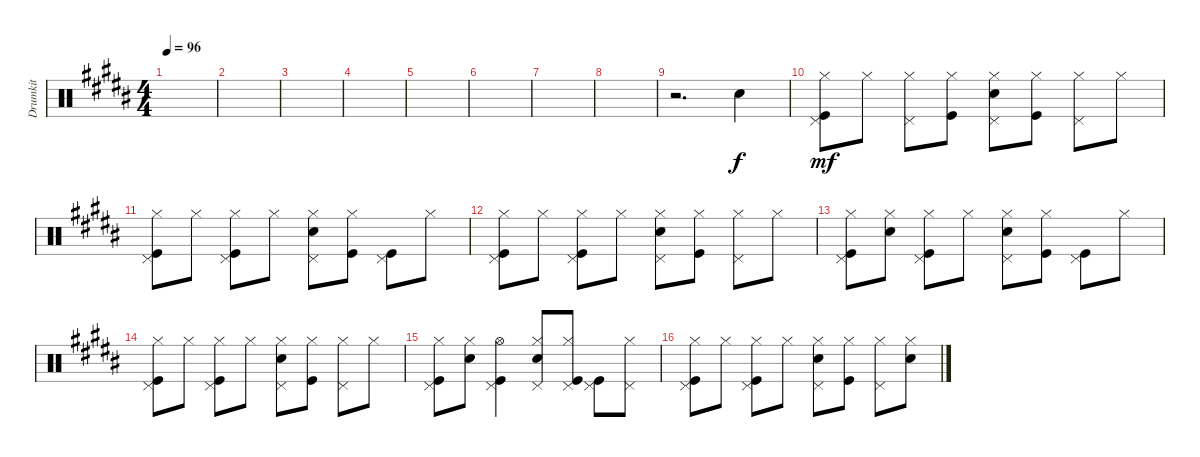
\track ("Drumkit" "Drumkit") {instrument percussion}
\staff {score}
\articulation defaults
\ts (4 4)
\tempo 96
\clef neutral
\ks b
|
|
|
|
|
|
|
|
r.2{d} "Snare (hit) 2".4 |
("Kick (hit)" "Hi-Hat (closed)" "Pedal Hi-Hat (hit)").8{dy mf} "Hi-Hat (closed)".8 ("Pedal Hi-Hat (hit)" "Hi-Hat (closed)").8 ("Kick (hit)" "Hi-Hat (closed)").8 ("Snare (hit) 2" "Pedal Hi-Hat (hit)" "Hi-Hat (closed)").8 ("Kick (hit)" "Hi-Hat (closed)").8 ("Pedal Hi-Hat (hit)" "Hi-Hat (closed)").8 "Hi-Hat (closed)".8 |
("Kick (hit)" "Pedal Hi-Hat (hit)" "Hi-Hat (closed)").8 "Hi-Hat (closed)".8 ("Kick (hit)" "Hi-Hat (closed)" "Pedal Hi-Hat (hit)").8 "Hi-Hat (closed)".8 ("Snare (hit) 2" "Hi-Hat (closed)" "Pedal Hi-Hat (hit)").8 ("Kick (hit)" "Hi-Hat (closed)").8 ("Kick (hit)" "Pedal Hi-Hat (hit)").8 "Hi-Hat (closed)".8 |
("Kick (hit)" "Hi-Hat (closed)" "Pedal Hi-Hat (hit)").8 "Hi-Hat (closed)".8 ("Pedal Hi-Hat (hit)" "Hi-Hat (closed)" "Kick (hit)").8 "Hi-Hat (closed)".8 ("Snare (hit) 2" "Pedal Hi-Hat (hit)" "Hi-Hat (closed)").8 ("Kick (hit)" "Hi-Hat (closed)").8 ("Pedal Hi-Hat (hit)" "Hi-Hat (closed)").8 "Hi-Hat (closed)".8 |
("Kick (hit)" "Pedal Hi-Hat (hit)" "Hi-Hat (closed)").8 ("Snare (hit) 2" "Hi-Hat (closed)").8 ("Kick (hit)" "Hi-Hat (closed)" "Pedal Hi-Hat (hit)").8 "Hi-Hat (closed)".8 ("Snare (hit) 2" "Hi-Hat (closed)" "Pedal Hi-Hat (hit)").8 ("Kick (hit)" "Hi-Hat (closed)").8 ("Kick (hit)" "Pedal Hi-Hat (hit)").8 "Hi-Hat (closed)".8 |
("Kick (hit)" "Hi-Hat (closed)" "Pedal Hi-Hat (hit)").8 "Hi-Hat (closed)".8 ("Pedal Hi-Hat (hit)" "Hi-Hat (closed)" "Kick (hit)").8 "Hi-Hat (closed)".8 ("Snare (hit) 2" "Pedal Hi-Hat (hit)" "Hi-Hat (closed)").8 ("Kick (hit)" "Hi-Hat (closed)").8 ("Pedal Hi-Hat (hit)" "Hi-Hat (closed)").8 "Hi-Hat (closed)".8 |
("Kick (hit)" "Pedal Hi-Hat (hit)" "Hi-Hat (closed)").8 ("Snare (hit) 2" "Hi-Hat (closed)").8 ("Kick (hit)" "Pedal Hi-Hat (hit)" "Hi-Hat (open)").4 ("Snare (hit) 2" "Hi-Hat (closed)" "Pedal Hi-Hat (hit)").8 ("Kick (hit)" "Pedal Hi-Hat (hit)" "Hi-Hat (closed)").8 ("Kick (hit)" "Pedal Hi-Hat (hit)").8 ("Pedal Hi-Hat (hit)" "Hi-Hat (closed)").8 |
("Kick (hit)" "Hi-Hat (closed)" "Pedal Hi-Hat (hit)").8 "Hi-Hat (closed)".8 ("Pedal Hi-Hat (hit)" "Hi-Hat (closed)" "Kick (hit)").8 "Hi-Hat (closed)".8 ("Snare (hit) 2" "Pedal Hi-Hat (hit)" "Hi-Hat (closed)").8 ("Kick (hit)" "Hi-Hat (closed)").8 ("Pedal Hi-Hat (hit)" "Hi-Hat (closed)").8 ("Hi-Hat (closed)" "Snare (hit) 2").8
